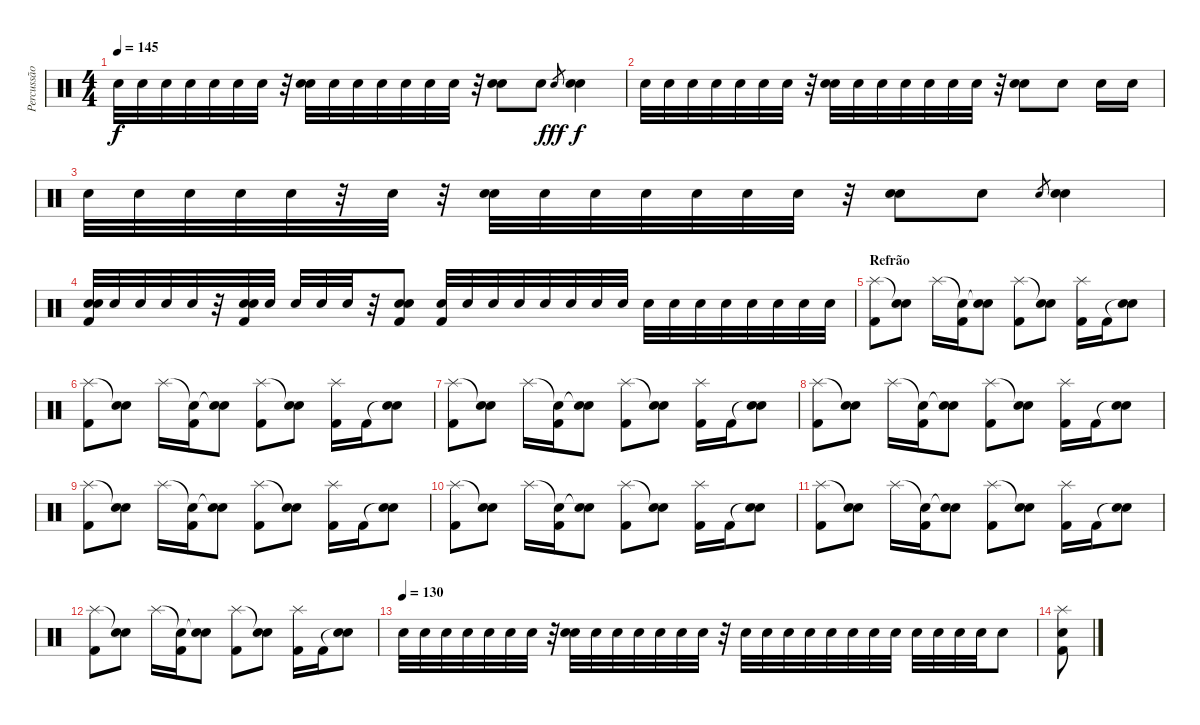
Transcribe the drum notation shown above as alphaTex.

\track ("Percussão" "Percussão") {instrument percussion}
\staff {score}
\articulation defaults
\ts (4 4)
\tempo 145
\clef neutral
\ks c "Snare (hit) 2".32{dy f} "Snare (hit) 2".32 "Snare (hit) 2".32 "Snare (hit) 2".32 "Snare (hit) 2".32 "Snare (hit) 2".32 "Snare (hit) 2".32
r.32 ("Snare (hit) 2" "Snare (hit) 2").32 "Snare (hit) 2".32 "Snare (hit) 2".32 "Snare (hit) 2".32 "Snare (hit) 2".32 "Snare (hit) 2".32 "Snare (hit) 2".32 r.32 ("Snare (hit) 2" "Snare (hit) 2").8 "Snare (hit) 2".8 "Snare (hit) 2".8{gr dy fff} ("Snare (hit) 2" "Snare (hit) 2").4{dy f} |
"Snare (hit) 2".32 "Snare (hit) 2".32 "Snare (hit) 2".32 "Snare (hit) 2".32 "Snare (hit) 2".32 "Snare (hit) 2".32 "Snare (hit) 2".32 r.32 ("Snare (hit) 2" "Snare (hit) 2").32 "Snare (hit) 2".32 "Snare (hit) 2".32 "Snare (hit) 2".32 "Snare (hit) 2".32 "Snare (hit) 2".32 "Snare (hit) 2".32 r.32 ("Snare (hit) 2" "Snare (hit) 2").8 "Snare (hit) 2".8 "Snare (hit) 2".16 "Snare (hit) 2".16 |
"Snare (hit) 2".32 "Snare (hit) 2".32 "Snare (hit) 2".32 "Snare (hit) 2".32 "Snare (hit) 2".32 r.32 "Snare (hit) 2".32 r.32 ("Snare (hit) 2" "Snare (hit) 2").32 "Snare (hit) 2".32 "Snare (hit) 2".32 "Snare (hit) 2".32 "Snare (hit) 2".32 "Snare (hit) 2".32 "Snare (hit) 2".32 r.32 ("Snare (hit) 2" "Snare (hit) 2").8 "Snare (hit) 2".8 "Snare (hit) 2".8{gr} ("Snare (hit) 2" "Snare (hit)").4 |
("Snare (hit) 2" "Snare (hit) 2" "Kick (hit) 2").32 "Snare (hit) 2".32 "Snare (hit) 2".32 "Snare (hit) 2".32 "Snare (hit) 2".32 r.32 ("Snare (hit) 2" "Snare (hit) 2" "Kick (hit) 2").32 "Snare (hit) 2".32 "Snare (hit) 2".32 "Snare (hit) 2".32 "Snare (hit) 2".32 r.32 ("Snare (hit) 2" "Snare (hit) 2" "Kick (hit) 2").8 ("Snare (hit) 2" "Kick (hit) 2").32 "Snare (hit) 2".32 "Snare (hit) 2".32 "Snare (hit) 2".32 "Snare (hit) 2".32 "Snare (hit) 2".32 "Snare (hit) 2".32 "Snare (hit) 2".32 "Snare (hit) 2".32 "Snare (hit) 2".32 "Snare (hit) 2".32 "Snare (hit) 2".32 "Snare (hit) 2".32 "Snare (hit) 2".32 "Snare (hit) 2".32 "Snare (hit) 2".32 |
\section ("" "Refrão")
("Splash (hit)" "Kick (hit) 2").8 ("Snare (hit)"{t} "Snare (hit) 2").8 "Splash (hit)".16 ("Snare (hit)"{t} "Kick (hit) 2").16 ("Snare (hit)"{t} "Snare (hit) 2").8 ("Splash (hit)" "Kick (hit) 2").8 ("Snare (hit)"{t} "Snare (hit) 2").8 ("Splash (hit)" "Kick (hit) 2").16 "Kick (hit) 2".16 ("Snare (hit)"{t} "Snare (hit) 2").8 |
("Splash (hit)" "Kick (hit) 2").8 ("Snare (hit)"{t} "Snare (hit) 2").8 "Splash (hit)".16 ("Snare (hit)"{t} "Kick (hit) 2").16 ("Snare (hit)"{t} "Snare (hit) 2").8 ("Splash (hit)" "Kick (hit) 2").8 ("Snare (hit)"{t} "Snare (hit) 2").8 ("Splash (hit)" "Kick (hit) 2").16 "Kick (hit) 2".16 ("Snare (hit)"{t} "Snare (hit) 2").8 |
("Splash (hit)" "Kick (hit) 2").8 ("Snare (hit)"{t} "Snare (hit) 2").8 "Splash (hit)".16 ("Snare (hit)"{t} "Kick (hit) 2").16 ("Snare (hit)"{t} "Snare (hit) 2").8 ("Splash (hit)" "Kick (hit) 2").8 ("Snare (hit)"{t} "Snare (hit) 2").8 ("Splash (hit)" "Kick (hit) 2").16 "Kick (hit) 2".16 ("Snare (hit)"{t} "Snare (hit) 2").8 |
("Splash (hit)" "Kick (hit) 2").8 ("Snare (hit)"{t} "Snare (hit) 2").8 "Splash (hit)".16 ("Snare (hit)"{t} "Kick (hit) 2").16 ("Snare (hit)"{t} "Snare (hit) 2").8 ("Splash (hit)" "Kick (hit) 2").8 ("Snare (hit)"{t} "Snare (hit) 2").8 ("Splash (hit)" "Kick (hit) 2").16 "Kick (hit) 2".16 ("Snare (hit)"{t} "Snare (hit) 2").8 |
("Splash (hit)" "Kick (hit) 2").8 ("Snare (hit)"{t} "Snare (hit) 2").8 "Splash (hit)".16 ("Snare (hit)"{t} "Kick (hit) 2").16 ("Snare (hit)"{t} "Snare (hit) 2").8 ("Splash (hit)" "Kick (hit) 2").8 ("Snare (hit)"{t} "Snare (hit) 2").8 ("Splash (hit)" "Kick (hit) 2").16 "Kick (hit) 2".16 ("Snare (hit)"{t} "Snare (hit) 2").8 |
("Splash (hit)" "Kick (hit) 2").8 ("Snare (hit)"{t} "Snare (hit) 2").8 "Splash (hit)".16 ("Snare (hit)"{t} "Kick (hit) 2").16 ("Snare (hit)"{t} "Snare (hit) 2").8 ("Splash (hit)" "Kick (hit) 2").8 ("Snare (hit)"{t} "Snare (hit) 2").8 ("Splash (hit)" "Kick (hit) 2").16 "Kick (hit) 2".16 ("Snare (hit)"{t} "Snare (hit) 2").8 |
("Splash (hit)" "Kick (hit) 2").8 ("Snare (hit)"{t} "Snare (hit) 2").8 "Splash (hit)".16 ("Snare (hit)"{t} "Kick (hit) 2").16 ("Snare (hit)"{t} "Snare (hit) 2").8 ("Splash (hit)" "Kick (hit) 2").8 ("Snare (hit)"{t} "Snare (hit) 2").8 ("Splash (hit)" "Kick (hit) 2").16 "Kick (hit) 2".16 ("Snare (hit)"{t} "Snare (hit) 2").8 |
("Splash (hit)" "Kick (hit) 2").8 ("Snare (hit)"{t} "Snare (hit) 2").8 "Splash (hit)".16 ("Snare (hit)"{t} "Kick (hit) 2").16 ("Snare (hit)"{t} "Snare (hit) 2").8 ("Splash (hit)" "Kick (hit) 2").8 ("Snare (hit)"{t} "Snare (hit) 2").8 ("Splash (hit)" "Kick (hit) 2").16 "Kick (hit) 2".16 ("Snare (hit)"{t} "Snare (hit) 2").8 |
\tempo (130)
"Snare (hit) 2".32 "Snare (hit) 2".32 "Snare (hit) 2".32 "Snare (hit) 2".32 "Snare (hit) 2".32 "Snare (hit) 2".32 "Snare (hit) 2".32 r.32 ("Snare (hit) 2" "Snare (hit) 2").32 "Snare (hit) 2".32 "Snare (hit) 2".32 "Snare (hit) 2".32 "Snare (hit) 2".32 "Snare (hit) 2".32 "Snare (hit) 2".32 r.32 "Snare (hit) 2".32 "Snare (hit) 2".32 "Snare (hit) 2".32 "Snare (hit) 2".32 "Snare (hit) 2".32 "Snare (hit) 2".32 "Snare (hit) 2".32 "Snare (hit) 2".32 "Snare (hit) 2".32 "Snare (hit) 2".32 "Snare (hit) 2".32 "Snare (hit) 2".32 "Snare (hit) 2".8 |
("Splash (hit)" "Kick (hit) 2" "Snare (hit) 2").8
